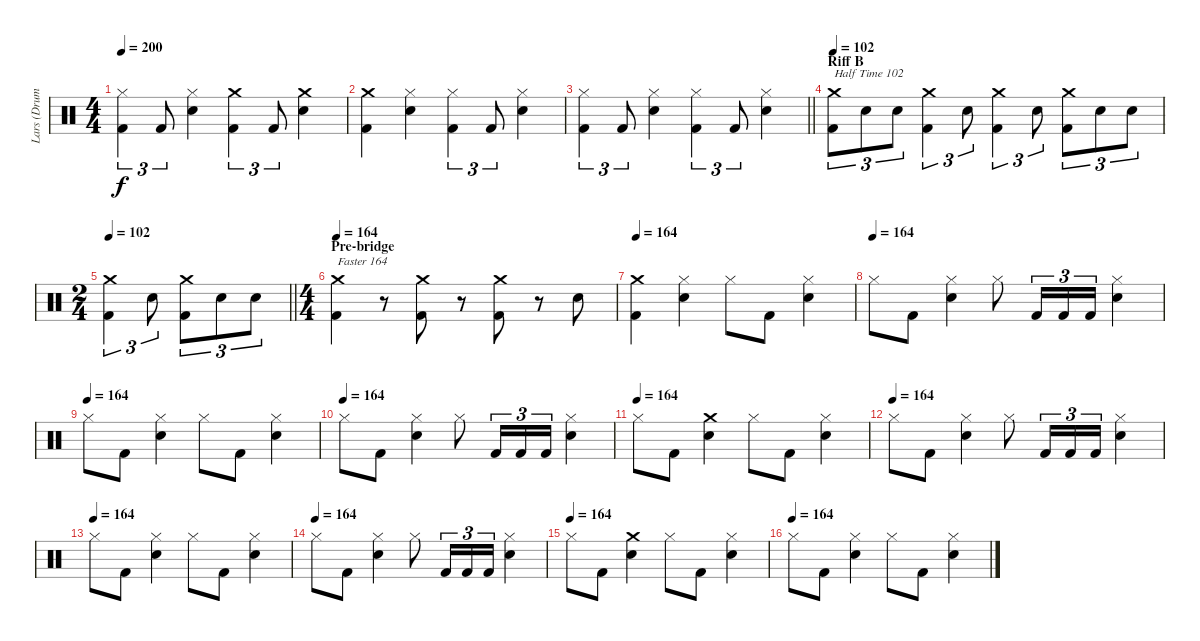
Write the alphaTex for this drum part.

\track ("Lars (Drums)" "Lars (Drum") {instrument percussion}
\staff {score}
\articulation defaults
\ts (4 4)
\tempo 200
\clef neutral
\ks c
("Hi-Hat (closed)" "Kick (hit) 2").4{tu (3 2) dy f} "Kick (hit) 2".8{tu (3 2)} ("Snare (hit) 2" "Hi-Hat (closed)").4 ("Crash medium (hit)" "Kick (hit) 2").4{tu (3 2)} "Kick (hit) 2".8{tu (3 2)} ("Snare (hit) 2" "Crash medium (hit)").4 |
("Crash medium (hit)" "Kick (hit) 2").4 ("Hi-Hat (closed)" "Snare (hit) 2").4 ("Hi-Hat (closed)" "Kick (hit) 2").4{tu (3 2)} "Kick (hit) 2".8{tu (3 2)} ("Snare (hit) 2" "Hi-Hat (closed)").4 |
\barLineRight lightlight
("Hi-Hat (closed)" "Kick (hit) 2").4{tu (3 2)} "Kick (hit) 2".8{tu (3 2)} ("Snare (hit) 2" "Hi-Hat (closed)").4 ("Hi-Hat (closed)" "Kick (hit) 2").4{tu (3 2)} "Kick (hit) 2".8{tu (3 2)} ("Snare (hit) 2" "Hi-Hat (closed)").4 |
\section ("" "Riff B")
\tempo 102
("Crash medium (hit)" "Kick (hit) 2").8{tu (3 2) txt "Half Time 102"} "Snare (hit) 2".8{tu (3 2)} "Snare (hit) 2".8{tu (3 2)} ("Crash medium (hit)" "Kick (hit) 2").4{tu (3 2)} "Snare (hit) 2".8{tu (3 2)} ("Crash medium (hit)" "Kick (hit) 2").4{tu (3 2)} "Snare (hit) 2".8{tu (3 2)} ("Crash medium (hit)" "Kick (hit) 2").8{tu (3 2)} "Snare (hit) 2".8{tu (3 2)} "Snare (hit) 2".8{tu (3 2)} |
\ts (2 4)
\tempo 102
\barLineRight lightlight
("Kick (hit) 2" "Crash medium (hit)").4{tu (3 2)} "Snare (hit) 2".8{tu (3 2)} ("Kick (hit) 2" "Crash medium (hit)").8{tu (3 2)} "Snare (hit) 2".8{tu (3 2)} "Snare (hit) 2".8{tu (3 2)} |
\ts (4 4)
\section ("" "Pre-bridge")
\tempo 164
("Crash medium (hit)" "Kick (hit) 2").4{txt "Faster 164"} r.8 ("Kick (hit) 2" "Crash medium (hit)").8 r.8 ("Crash medium (hit)" "Kick (hit) 2").8 r.8 "Snare (hit) 2".8 |
\tempo 164
("Kick (hit) 2" "Crash medium (hit)").4 ("Hi-Hat (closed)" "Snare (hit) 2").4 "Hi-Hat (closed)".8 "Kick (hit) 2".8 ("Snare (hit) 2" "Hi-Hat (closed)").4 |
\tempo (164)
"Hi-Hat (closed)".8 "Kick (hit) 2".8 ("Snare (hit) 2" "Hi-Hat (closed)").4 "Hi-Hat (closed)".8 "Kick (hit) 2".16{tu (3 2)} "Kick (hit) 2".16{tu (3 2)} "Kick (hit) 2".16{tu (3 2)} ("Snare (hit) 2" "Hi-Hat (closed)").4 |
\tempo (164)
"Hi-Hat (closed)".8 "Kick (hit) 2".8 ("Snare (hit) 2" "Hi-Hat (closed)").4 "Hi-Hat (closed)".8 "Kick (hit) 2".8 ("Snare (hit) 2" "Hi-Hat (closed)").4 |
\tempo (164)
"Hi-Hat (closed)".8 "Kick (hit) 2".8 ("Snare (hit) 2" "Hi-Hat (closed)").4 "Hi-Hat (closed)".8 "Kick (hit) 2".16{tu (3 2)} "Kick (hit) 2".16{tu (3 2)} "Kick (hit) 2".16{tu (3 2)} ("Snare (hit) 2" "Hi-Hat (closed)").4 |
\tempo (164)
"Hi-Hat (closed)".8 "Kick (hit) 2".8 ("Crash medium (hit)" "Snare (hit) 2").4 "Hi-Hat (closed)".8 "Kick (hit) 2".8 ("Snare (hit) 2" "Hi-Hat (closed)").4 |
\tempo (164)
"Hi-Hat (closed)".8 "Kick (hit) 2".8 ("Snare (hit) 2" "Hi-Hat (closed)").4 "Hi-Hat (closed)".8 "Kick (hit) 2".16{tu (3 2)} "Kick (hit) 2".16{tu (3 2)} "Kick (hit) 2".16{tu (3 2)} ("Snare (hit) 2" "Hi-Hat (closed)").4 |
\tempo (164)
"Hi-Hat (closed)".8 "Kick (hit) 2".8 ("Snare (hit) 2" "Hi-Hat (closed)").4 "Hi-Hat (closed)".8 "Kick (hit) 2".8 ("Snare (hit) 2" "Hi-Hat (closed)").4 |
\tempo (164)
"Hi-Hat (closed)".8 "Kick (hit) 2".8 ("Snare (hit) 2" "Hi-Hat (closed)").4 "Hi-Hat (closed)".8 "Kick (hit) 2".16{tu (3 2)} "Kick (hit) 2".16{tu (3 2)} "Kick (hit) 2".16{tu (3 2)} ("Snare (hit) 2" "Hi-Hat (closed)").4 |
\tempo (164)
"Hi-Hat (closed)".8 "Kick (hit) 2".8 ("Crash medium (hit)" "Snare (hit) 2").4 "Hi-Hat (closed)".8 "Kick (hit) 2".8 ("Snare (hit) 2" "Hi-Hat (closed)").4 |
\tempo (164)
"Hi-Hat (closed)".8 "Kick (hit) 2".8 ("Snare (hit) 2" "Hi-Hat (closed)").4 "Hi-Hat (closed)".8 "Kick (hit) 2".8 ("Snare (hit) 2" "Hi-Hat (closed)").4
